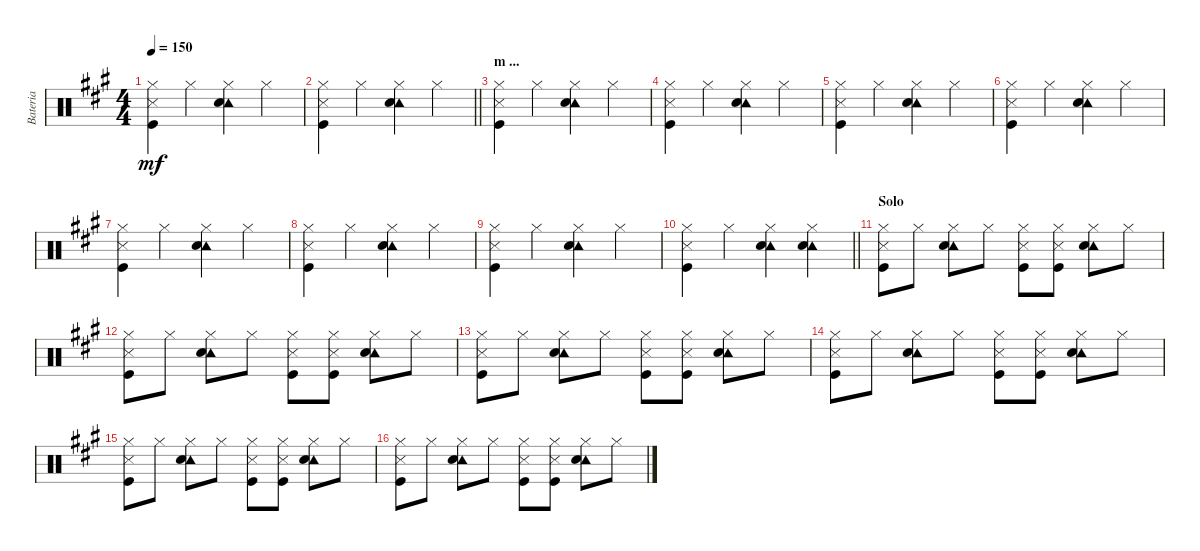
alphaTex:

\track ("Bateria" "Bateria") {instrument percussion}
\staff {score}
\articulation defaults
\ts (4 4)
\tempo 150
\clef neutral
\ks a
("Hi-Hat (closed)" "Metronome (hit)" "Kick (hit)").4{dy mf} "Hi-Hat (closed)".4 ("Tambourine (hit)" "Hi-Hat (closed)" "Electric Snare (hit)").4 "Hi-Hat (closed)".4 |
\barLineRight lightlight
("Hi-Hat (closed)" "Metronome (hit)" "Kick (hit)").4 "Hi-Hat (closed)".4 ("Tambourine (hit)" "Hi-Hat (closed)" "Electric Snare (hit)").4 "Hi-Hat (closed)".4 |
\section ("" "m ...")
("Hi-Hat (closed)" "Metronome (hit)" "Kick (hit)").4 "Hi-Hat (closed)".4 ("Tambourine (hit)" "Hi-Hat (closed)" "Electric Snare (hit)").4 "Hi-Hat (closed)".4 |
("Hi-Hat (closed)" "Metronome (hit)" "Kick (hit)").4 "Hi-Hat (closed)".4 ("Tambourine (hit)" "Hi-Hat (closed)" "Electric Snare (hit)").4 "Hi-Hat (closed)".4 |
("Hi-Hat (closed)" "Metronome (hit)" "Kick (hit)").4 "Hi-Hat (closed)".4 ("Tambourine (hit)" "Hi-Hat (closed)" "Electric Snare (hit)").4 "Hi-Hat (closed)".4 |
("Hi-Hat (closed)" "Metronome (hit)" "Kick (hit)").4 "Hi-Hat (closed)".4 ("Tambourine (hit)" "Hi-Hat (closed)" "Electric Snare (hit)").4 "Hi-Hat (closed)".4 |
("Hi-Hat (closed)" "Metronome (hit)" "Kick (hit)").4 "Hi-Hat (closed)".4 ("Tambourine (hit)" "Hi-Hat (closed)" "Electric Snare (hit)").4 "Hi-Hat (closed)".4 |
("Hi-Hat (closed)" "Metronome (hit)" "Kick (hit)").4 "Hi-Hat (closed)".4 ("Tambourine (hit)" "Hi-Hat (closed)" "Electric Snare (hit)").4 "Hi-Hat (closed)".4 |
("Hi-Hat (closed)" "Metronome (hit)" "Kick (hit)").4 "Hi-Hat (closed)".4 ("Tambourine (hit)" "Hi-Hat (closed)" "Electric Snare (hit)").4 "Hi-Hat (closed)".4 |
\barLineRight lightlight
("Hi-Hat (closed)" "Metronome (hit)" "Kick (hit)").4 "Hi-Hat (closed)".4 ("Tambourine (hit)" "Hi-Hat (closed)" "Electric Snare (hit)").4 ("Tambourine (hit)" "Hi-Hat (closed)" "Electric Snare (hit)").4 |
\section ("" "Solo")
("Hi-Hat (closed)" "Metronome (hit)" "Kick (hit)").8 "Hi-Hat (closed)".8 ("Tambourine (hit)" "Hi-Hat (closed)" "Electric Snare (hit)").8 "Hi-Hat (closed)".8 ("Hi-Hat (closed)" "Metronome (hit)" "Kick (hit)").8 ("Hi-Hat (closed)" "Metronome (hit)" "Kick (hit)").8 ("Tambourine (hit)" "Hi-Hat (closed)" "Electric Snare (hit)").8 "Hi-Hat (closed)".8 |
("Hi-Hat (closed)" "Metronome (hit)" "Kick (hit)").8 "Hi-Hat (closed)".8 ("Tambourine (hit)" "Hi-Hat (closed)" "Electric Snare (hit)").8 "Hi-Hat (closed)".8 ("Hi-Hat (closed)" "Metronome (hit)" "Kick (hit)").8 ("Hi-Hat (closed)" "Metronome (hit)" "Kick (hit)").8 ("Tambourine (hit)" "Hi-Hat (closed)" "Electric Snare (hit)").8 "Hi-Hat (closed)".8 |
("Hi-Hat (closed)" "Metronome (hit)" "Kick (hit)").8 "Hi-Hat (closed)".8 ("Tambourine (hit)" "Hi-Hat (closed)" "Electric Snare (hit)").8 "Hi-Hat (closed)".8 ("Hi-Hat (closed)" "Metronome (hit)" "Kick (hit)").8 ("Hi-Hat (closed)" "Metronome (hit)" "Kick (hit)").8 ("Tambourine (hit)" "Hi-Hat (closed)" "Electric Snare (hit)").8 "Hi-Hat (closed)".8 |
("Hi-Hat (closed)" "Metronome (hit)" "Kick (hit)").8 "Hi-Hat (closed)".8 ("Tambourine (hit)" "Hi-Hat (closed)" "Electric Snare (hit)").8 "Hi-Hat (closed)".8 ("Hi-Hat (closed)" "Metronome (hit)" "Kick (hit)").8 ("Hi-Hat (closed)" "Metronome (hit)" "Kick (hit)").8 ("Tambourine (hit)" "Hi-Hat (closed)" "Electric Snare (hit)").8 "Hi-Hat (closed)".8 |
("Hi-Hat (closed)" "Metronome (hit)" "Kick (hit)").8 "Hi-Hat (closed)".8 ("Tambourine (hit)" "Hi-Hat (closed)" "Electric Snare (hit)").8 "Hi-Hat (closed)".8 ("Hi-Hat (closed)" "Metronome (hit)" "Kick (hit)").8 ("Hi-Hat (closed)" "Metronome (hit)" "Kick (hit)").8 ("Tambourine (hit)" "Hi-Hat (closed)" "Electric Snare (hit)").8 "Hi-Hat (closed)".8 |
("Hi-Hat (closed)" "Metronome (hit)" "Kick (hit)").8 "Hi-Hat (closed)".8 ("Tambourine (hit)" "Hi-Hat (closed)" "Electric Snare (hit)").8 "Hi-Hat (closed)".8 ("Hi-Hat (closed)" "Metronome (hit)" "Kick (hit)").8 ("Hi-Hat (closed)" "Metronome (hit)" "Kick (hit)").8 ("Tambourine (hit)" "Hi-Hat (closed)" "Electric Snare (hit)").8 "Hi-Hat (closed)".8
